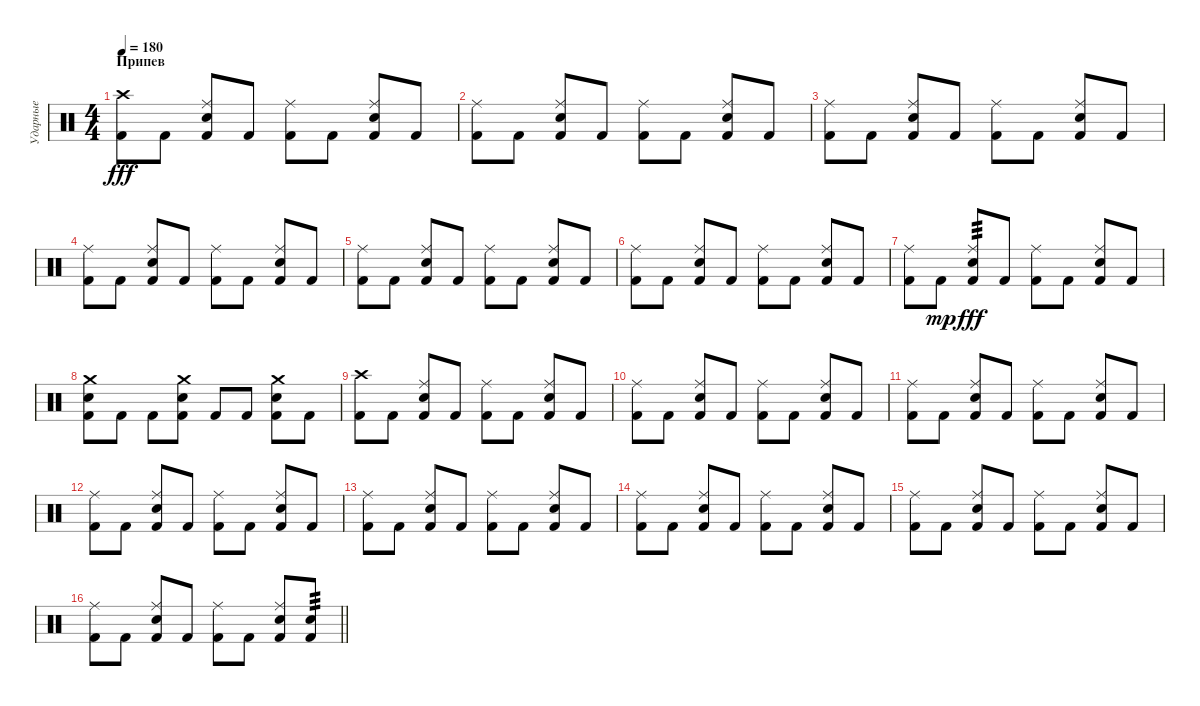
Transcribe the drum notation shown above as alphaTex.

\track ("Ударные" "Ударные") {instrument percussion}
\staff {score}
\articulation defaults
\ts (4 4)
\section ("" "Припев")
\tempo 180
\clef neutral
\ks c
("Crash high (hit)" "Kick (hit) 2").8{dy fff} "Kick (hit) 2".8 ("Ride (middle)" "Snare (hit) 2" "Kick (hit) 2").8 "Kick (hit) 2".8 ("Ride (middle)" "Kick (hit) 2").8 "Kick (hit) 2".8 ("Ride (middle)" "Snare (hit) 2" "Kick (hit) 2").8 "Kick (hit) 2".8 |
("Ride (middle)" "Kick (hit) 2").8 "Kick (hit) 2".8 ("Ride (middle)" "Snare (hit) 2" "Kick (hit) 2").8 "Kick (hit) 2".8 ("Ride (middle)" "Kick (hit) 2").8 "Kick (hit) 2".8 ("Ride (middle)" "Snare (hit) 2" "Kick (hit) 2").8 "Kick (hit) 2".8 |
("Ride (middle)" "Kick (hit) 2").8 "Kick (hit) 2".8 ("Ride (middle)" "Snare (hit) 2" "Kick (hit) 2").8 "Kick (hit) 2".8 ("Ride (middle)" "Kick (hit) 2").8 "Kick (hit) 2".8 ("Ride (middle)" "Snare (hit) 2" "Kick (hit) 2").8 "Kick (hit) 2".8 |
("Ride (middle)" "Kick (hit) 2").8 "Kick (hit) 2".8 ("Ride (middle)" "Snare (hit) 2" "Kick (hit) 2").8 "Kick (hit) 2".8 ("Ride (middle)" "Kick (hit) 2").8 "Kick (hit) 2".8 ("Ride (middle)" "Snare (hit) 2" "Kick (hit) 2").8 "Kick (hit) 2".8 |
("Ride (middle)" "Kick (hit) 2").8 "Kick (hit) 2".8 ("Ride (middle)" "Snare (hit) 2" "Kick (hit) 2").8 "Kick (hit) 2".8 ("Ride (middle)" "Kick (hit) 2").8 "Kick (hit) 2".8 ("Ride (middle)" "Snare (hit) 2" "Kick (hit) 2").8 "Kick (hit) 2".8 |
("Ride (middle)" "Kick (hit) 2").8 "Kick (hit) 2".8 ("Ride (middle)" "Snare (hit) 2" "Kick (hit) 2").8 "Kick (hit) 2".8 ("Ride (middle)" "Kick (hit) 2").8 "Kick (hit) 2".8 ("Ride (middle)" "Snare (hit) 2" "Kick (hit) 2").8 "Kick (hit) 2".8 |
("Ride (middle)" "Kick (hit) 2").8 "Kick (hit) 2".8{dy mp} ("Ride (middle)" "Snare (hit) 2" "Kick (hit) 2").8{tp 3 dy fff} "Kick (hit) 2".8 ("Ride (middle)" "Kick (hit) 2").8 "Kick (hit) 2".8 ("Ride (middle)" "Snare (hit) 2" "Kick (hit) 2").8 "Kick (hit) 2".8 |
("Crash medium (hit)" "Snare (hit) 2" "Kick (hit) 2").8 "Kick (hit) 2".8 "Kick (hit) 2".8 ("Crash medium (hit)" "Snare (hit) 2" "Kick (hit) 2").8 "Kick (hit) 2".8 "Kick (hit) 2".8 ("Crash medium (hit)" "Snare (hit) 2" "Kick (hit) 2").8 "Kick (hit) 2".8 |
("Crash high (hit)" "Kick (hit) 2").8 "Kick (hit) 2".8 ("Ride (middle)" "Snare (hit) 2" "Kick (hit) 2").8 "Kick (hit) 2".8 ("Ride (middle)" "Kick (hit) 2").8 "Kick (hit) 2".8 ("Ride (middle)" "Snare (hit) 2" "Kick (hit) 2").8 "Kick (hit) 2".8 |
("Ride (middle)" "Kick (hit) 2").8 "Kick (hit) 2".8 ("Ride (middle)" "Snare (hit) 2" "Kick (hit) 2").8 "Kick (hit) 2".8 ("Ride (middle)" "Kick (hit) 2").8 "Kick (hit) 2".8 ("Ride (middle)" "Snare (hit) 2" "Kick (hit) 2").8 "Kick (hit) 2".8 |
("Ride (middle)" "Kick (hit) 2").8 "Kick (hit) 2".8 ("Ride (middle)" "Snare (hit) 2" "Kick (hit) 2").8 "Kick (hit) 2".8 ("Ride (middle)" "Kick (hit) 2").8 "Kick (hit) 2".8 ("Ride (middle)" "Snare (hit) 2" "Kick (hit) 2").8 "Kick (hit) 2".8 |
("Ride (middle)" "Kick (hit) 2").8 "Kick (hit) 2".8 ("Ride (middle)" "Snare (hit) 2" "Kick (hit) 2").8 "Kick (hit) 2".8 ("Ride (middle)" "Kick (hit) 2").8 "Kick (hit) 2".8 ("Ride (middle)" "Snare (hit) 2" "Kick (hit) 2").8 "Kick (hit) 2".8 |
("Ride (middle)" "Kick (hit) 2").8 "Kick (hit) 2".8 ("Ride (middle)" "Snare (hit) 2" "Kick (hit) 2").8 "Kick (hit) 2".8 ("Ride (middle)" "Kick (hit) 2").8 "Kick (hit) 2".8 ("Ride (middle)" "Snare (hit) 2" "Kick (hit) 2").8 "Kick (hit) 2".8 |
("Ride (middle)" "Kick (hit) 2").8 "Kick (hit) 2".8 ("Ride (middle)" "Snare (hit) 2" "Kick (hit) 2").8 "Kick (hit) 2".8 ("Ride (middle)" "Kick (hit) 2").8 "Kick (hit) 2".8 ("Ride (middle)" "Snare (hit) 2" "Kick (hit) 2").8 "Kick (hit) 2".8 |
("Ride (middle)" "Kick (hit) 2").8 "Kick (hit) 2".8 ("Ride (middle)" "Snare (hit) 2" "Kick (hit) 2").8 "Kick (hit) 2".8 ("Ride (middle)" "Kick (hit) 2").8 "Kick (hit) 2".8 ("Ride (middle)" "Snare (hit) 2" "Kick (hit) 2").8 "Kick (hit) 2".8 |
\barLineRight lightlight
("Ride (middle)" "Kick (hit) 2").8 "Kick (hit) 2".8 ("Ride (middle)" "Snare (hit) 2" "Kick (hit) 2").8 "Kick (hit) 2".8 ("Ride (middle)" "Kick (hit) 2").8 "Kick (hit) 2".8 ("Ride (middle)" "Snare (hit) 2" "Kick (hit) 2").8 ("Snare (hit) 2" "Kick (hit) 2").8{tp 3}
